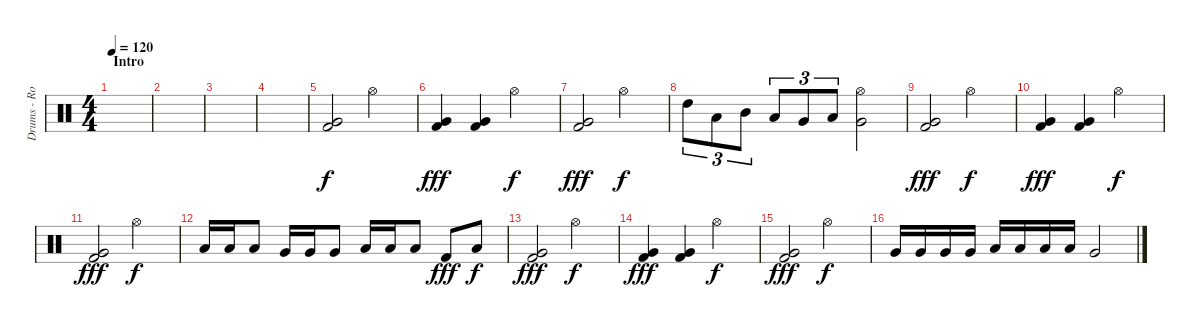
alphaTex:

\track ("Drums - Rodrigo" "Drums - Ro") {instrument percussion}
\staff {score}
\articulation defaults
\ts (4 4)
\section ("" "Intro")
\tempo 120
\clef neutral
\ks c
|
|
|
|
("Very Low Tom (hit)" "Kick (hit) 2").2 "Hi-Hat (open)".2{dy f} |
("Very Low Tom (hit)" "Kick (hit) 2").4{dy fff} ("Very Low Tom (hit)" "Kick (hit) 2").4 "Hi-Hat (open)".2{dy f} |
("Very Low Tom (hit)" "Kick (hit) 2").2{dy fff} "Hi-Hat (open)".2{dy f} |
"High Tom (hit)".8{tu (3 2)} "Low Tom (hit)".8{tu (3 2)} "Mid Tom (hit)".8{tu (3 2)} "Low Tom (hit)".8{tu (3 2)} "Very Low Tom (hit)".8{tu (3 2)} "Low Floor Tom (hit)".8{tu (3 2)} ("Hi-Hat (open)" "Very Low Tom (hit)").2 |
("Very Low Tom (hit)" "Kick (hit) 2").2{dy fff} "Hi-Hat (open)".2{dy f} |
("Very Low Tom (hit)" "Kick (hit) 2").4{dy fff} ("Very Low Tom (hit)" "Kick (hit) 2").4 "Hi-Hat (open)".2{dy f} |
("Very Low Tom (hit)" "Kick (hit) 2").2{dy fff} "Hi-Hat (open)".2{dy f} |
"Low Tom (hit)".16 "Low Tom (hit)".16 "Low Tom (hit)".8 "Very Low Tom (hit)".16 "Very Low Tom (hit)".16 "Very Low Tom (hit)".8 "Low Floor Tom (hit)".16 "Low Floor Tom (hit)".16 "Low Floor Tom (hit)".8 "Kick (hit) 2".8{dy fff} "Low Tom (hit)".8{dy f} |
("Very Low Tom (hit)" "Kick (hit) 2").2{dy fff} "Hi-Hat (open)".2{dy f} |
("Very Low Tom (hit)" "Kick (hit) 2").4{dy fff} ("Very Low Tom (hit)" "Kick (hit) 2").4 "Hi-Hat (open)".2{dy f} |
("Very Low Tom (hit)" "Kick (hit) 2").2{dy fff} "Hi-Hat (open)".2{dy f} |
"Very Low Tom (hit)".16 "Very Low Tom (hit)".16 "Very Low Tom (hit)".16 "Very Low Tom (hit)".16 "Low Tom (hit)".16 "Low Tom (hit)".16 "Low Tom (hit)".16 "Low Tom (hit)".16 "Very Low Tom (hit)".2
